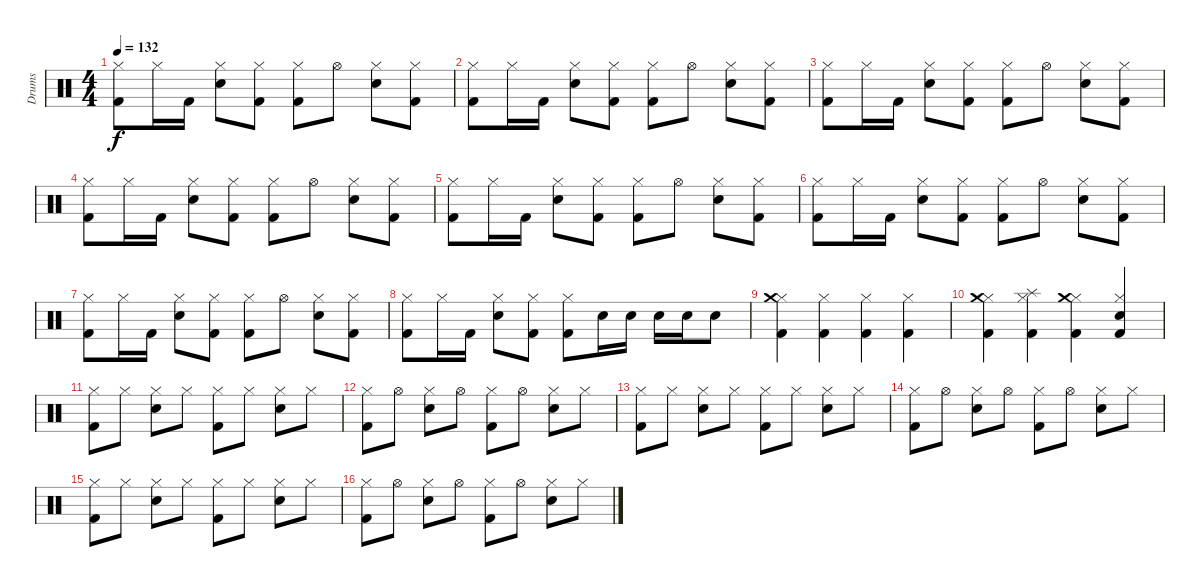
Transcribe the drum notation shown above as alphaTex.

\track ("Drums" "Drums") {instrument percussion}
\staff {score}
\articulation defaults
\ts (4 4)
\tempo 132
\clef neutral
\ks c
("Kick (hit) 2" "Hi-Hat (closed)").8{dy f} "Hi-Hat (closed)".16 "Kick (hit) 2".16 ("Electric Snare (hit)" "Hi-Hat (closed)").8 ("Kick (hit) 2" "Hi-Hat (closed)").8 ("Kick (hit) 2" "Hi-Hat (closed)").8 "Hi-Hat (open)".8 ("Electric Snare (hit)" "Hi-Hat (closed)").8 ("Kick (hit) 2" "Hi-Hat (closed)").8 |
("Kick (hit) 2" "Hi-Hat (closed)").8 "Hi-Hat (closed)".16 "Kick (hit) 2".16 ("Electric Snare (hit)" "Hi-Hat (closed)").8 ("Kick (hit) 2" "Hi-Hat (closed)").8 ("Kick (hit) 2" "Hi-Hat (closed)").8 "Hi-Hat (open)".8 ("Electric Snare (hit)" "Hi-Hat (closed)").8 ("Kick (hit) 2" "Hi-Hat (closed)").8 |
("Kick (hit) 2" "Hi-Hat (closed)").8 "Hi-Hat (closed)".16 "Kick (hit) 2".16 ("Electric Snare (hit)" "Hi-Hat (closed)").8 ("Kick (hit) 2" "Hi-Hat (closed)").8 ("Kick (hit) 2" "Hi-Hat (closed)").8 "Hi-Hat (open)".8 ("Electric Snare (hit)" "Hi-Hat (closed)").8 ("Kick (hit) 2" "Hi-Hat (closed)").8 |
("Kick (hit) 2" "Hi-Hat (closed)").8 "Hi-Hat (closed)".16 "Kick (hit) 2".16 ("Electric Snare (hit)" "Hi-Hat (closed)").8 ("Kick (hit) 2" "Hi-Hat (closed)").8 ("Kick (hit) 2" "Hi-Hat (closed)").8 "Hi-Hat (open)".8 ("Electric Snare (hit)" "Hi-Hat (closed)").8 ("Kick (hit) 2" "Hi-Hat (closed)").8 |
("Kick (hit) 2" "Hi-Hat (closed)").8 "Hi-Hat (closed)".16 "Kick (hit) 2".16 ("Electric Snare (hit)" "Hi-Hat (closed)").8 ("Kick (hit) 2" "Hi-Hat (closed)").8 ("Kick (hit) 2" "Hi-Hat (closed)").8 "Hi-Hat (open)".8 ("Electric Snare (hit)" "Hi-Hat (closed)").8 ("Kick (hit) 2" "Hi-Hat (closed)").8 |
("Kick (hit) 2" "Hi-Hat (closed)").8 "Hi-Hat (closed)".16 "Kick (hit) 2".16 ("Electric Snare (hit)" "Hi-Hat (closed)").8 ("Kick (hit) 2" "Hi-Hat (closed)").8 ("Kick (hit) 2" "Hi-Hat (closed)").8 "Hi-Hat (open)".8 ("Electric Snare (hit)" "Hi-Hat (closed)").8 ("Kick (hit) 2" "Hi-Hat (closed)").8 |
("Kick (hit) 2" "Hi-Hat (closed)").8 "Hi-Hat (closed)".16 "Kick (hit) 2".16 ("Electric Snare (hit)" "Hi-Hat (closed)").8 ("Kick (hit) 2" "Hi-Hat (closed)").8 ("Kick (hit) 2" "Hi-Hat (closed)").8 "Hi-Hat (open)".8 ("Electric Snare (hit)" "Hi-Hat (closed)").8 ("Kick (hit) 2" "Hi-Hat (closed)").8 |
("Kick (hit) 2" "Hi-Hat (closed)").8 "Hi-Hat (closed)".16 "Kick (hit) 2".16 ("Electric Snare (hit)" "Hi-Hat (closed)").8 ("Kick (hit) 2" "Hi-Hat (closed)").8 ("Kick (hit) 2" "Hi-Hat (closed)").8 "Electric Snare (hit)".16 "Electric Snare (hit)".16 "Electric Snare (hit)".16 "Electric Snare (hit)".16 "Electric Snare (hit)".8 |
("Kick (hit) 2" "Hi-Hat (closed)" "Crash medium (hit)").4 ("Kick (hit) 2" "Hi-Hat (closed)").4 ("Kick (hit) 2" "Hi-Hat (closed)").4 ("Kick (hit) 2" "Hi-Hat (closed)").4 |
("Kick (hit) 2" "Hi-Hat (closed)" "Crash medium (hit)").4 ("Kick (hit) 2" "Hi-Hat (closed)" "Splash (hit)").4 ("Kick (hit) 2" "Hi-Hat (closed)" "Crash medium (hit)").4 ("Kick (hit) 2" "Electric Snare (hit)" "Hi-Hat (closed)").4 |
("Kick (hit) 2" "Hi-Hat (closed)").8 "Hi-Hat (closed)".8 ("Electric Snare (hit)" "Hi-Hat (closed)").8 "Hi-Hat (closed)".8 ("Kick (hit) 2" "Hi-Hat (closed)").8 "Hi-Hat (closed)".8 ("Electric Snare (hit)" "Hi-Hat (closed)").8 "Hi-Hat (closed)".8 |
("Kick (hit) 2" "Hi-Hat (closed)").8 "Hi-Hat (open)".8 ("Electric Snare (hit)" "Hi-Hat (closed)").8 "Hi-Hat (open)".8 ("Kick (hit) 2" "Hi-Hat (closed)").8 "Hi-Hat (open)".8 ("Electric Snare (hit)" "Hi-Hat (closed)").8 "Hi-Hat (closed)".8 |
("Kick (hit) 2" "Hi-Hat (closed)").8 "Hi-Hat (closed)".8 ("Electric Snare (hit)" "Hi-Hat (closed)").8 "Hi-Hat (closed)".8 ("Kick (hit) 2" "Hi-Hat (closed)").8 "Hi-Hat (closed)".8 ("Electric Snare (hit)" "Hi-Hat (closed)").8 "Hi-Hat (closed)".8 |
("Kick (hit) 2" "Hi-Hat (closed)").8 "Hi-Hat (open)".8 ("Electric Snare (hit)" "Hi-Hat (closed)").8 "Hi-Hat (open)".8 ("Kick (hit) 2" "Hi-Hat (closed)").8 "Hi-Hat (open)".8 ("Electric Snare (hit)" "Hi-Hat (closed)").8 "Hi-Hat (closed)".8 |
("Kick (hit) 2" "Hi-Hat (closed)").8 "Hi-Hat (closed)".8 ("Electric Snare (hit)" "Hi-Hat (closed)").8 "Hi-Hat (closed)".8 ("Kick (hit) 2" "Hi-Hat (closed)").8 "Hi-Hat (closed)".8 ("Electric Snare (hit)" "Hi-Hat (closed)").8 "Hi-Hat (closed)".8 |
("Kick (hit) 2" "Hi-Hat (closed)").8 "Hi-Hat (open)".8 ("Electric Snare (hit)" "Hi-Hat (closed)").8 "Hi-Hat (open)".8 ("Kick (hit) 2" "Hi-Hat (closed)").8 "Hi-Hat (open)".8 ("Electric Snare (hit)" "Hi-Hat (closed)").8 "Hi-Hat (closed)".8
